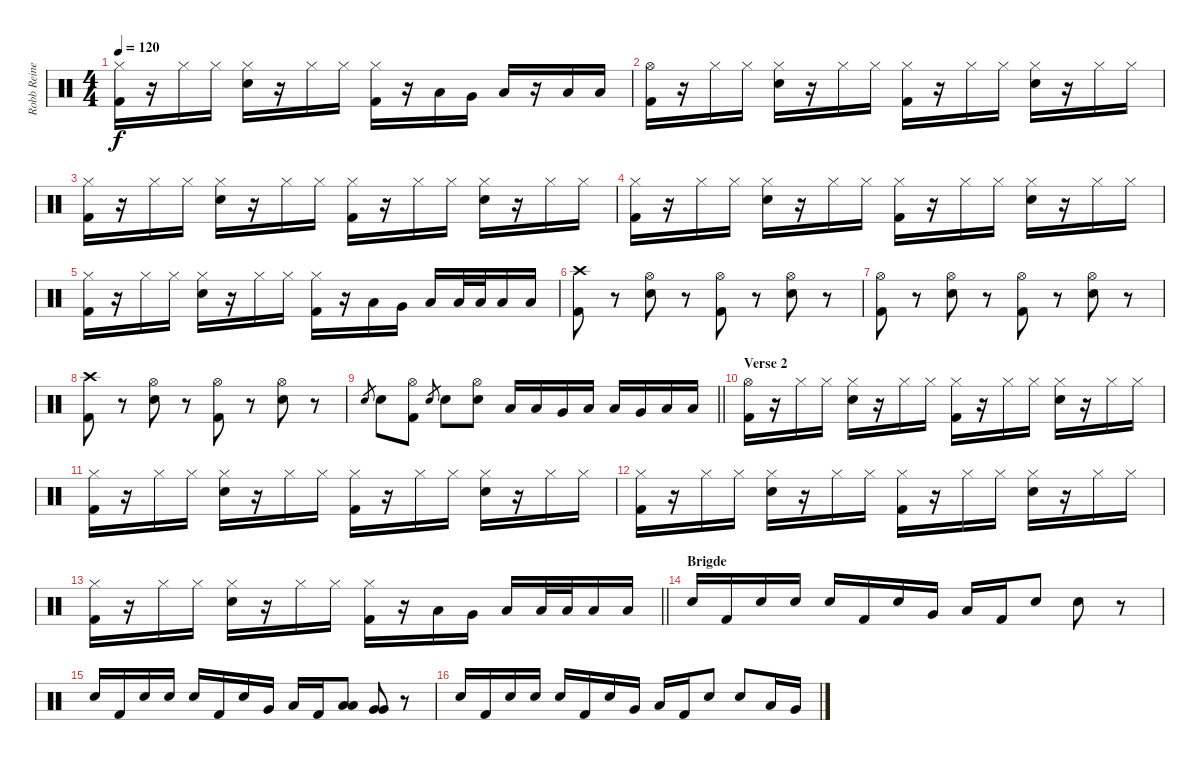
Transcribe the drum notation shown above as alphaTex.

\track ("Robb Reiner" "Robb Reine") {instrument percussion}
\staff {score}
\articulation defaults
\ts (4 4)
\tempo 120
\clef neutral
\ks c
("Hi-Hat (closed)" "Kick (hit) 2").16{dy f} r.16 "Hi-Hat (closed)".16 "Hi-Hat (closed)".16 ("Hi-Hat (closed)" "Snare (hit) 2").16 r.16 "Hi-Hat (closed)".16 "Hi-Hat (closed)".16 ("Hi-Hat (closed)" "Kick (hit) 2").16 r.16 "Low Tom (hit)".16 "Very Low Tom (hit)".16 "Low Floor Tom (hit)".16 r.16 "Low Tom (hit)".16 "Low Tom (hit)".16 |
("Hi-Hat (open)" "Kick (hit) 2").16 r.16 "Hi-Hat (closed)".16 "Hi-Hat (closed)".16 ("Hi-Hat (closed)" "Snare (hit) 2").16 r.16 "Hi-Hat (closed)".16 "Hi-Hat (closed)".16 ("Hi-Hat (closed)" "Kick (hit) 2").16 r.16 "Hi-Hat (closed)".16 "Hi-Hat (closed)".16 ("Hi-Hat (closed)" "Snare (hit) 2").16 r.16 "Hi-Hat (closed)".16 "Hi-Hat (closed)".16 |
("Hi-Hat (closed)" "Kick (hit) 2").16 r.16 "Hi-Hat (closed)".16 "Hi-Hat (closed)".16 ("Hi-Hat (closed)" "Snare (hit) 2").16 r.16 "Hi-Hat (closed)".16 "Hi-Hat (closed)".16 ("Hi-Hat (closed)" "Kick (hit) 2").16 r.16 "Hi-Hat (closed)".16 "Hi-Hat (closed)".16 ("Hi-Hat (closed)" "Snare (hit) 2").16 r.16 "Hi-Hat (closed)".16 "Hi-Hat (closed)".16 |
("Hi-Hat (closed)" "Kick (hit) 2").16 r.16 "Hi-Hat (closed)".16 "Hi-Hat (closed)".16 ("Hi-Hat (closed)" "Snare (hit) 2").16 r.16 "Hi-Hat (closed)".16 "Hi-Hat (closed)".16 ("Hi-Hat (closed)" "Kick (hit) 2").16 r.16 "Hi-Hat (closed)".16 "Hi-Hat (closed)".16 ("Hi-Hat (closed)" "Snare (hit) 2").16 r.16 "Hi-Hat (closed)".16 "Hi-Hat (closed)".16 |
("Hi-Hat (closed)" "Kick (hit) 2").16 r.16 "Hi-Hat (closed)".16 "Hi-Hat (closed)".16 ("Hi-Hat (closed)" "Snare (hit) 2").16 r.16 "Hi-Hat (closed)".16 "Hi-Hat (closed)".16 ("Hi-Hat (closed)" "Kick (hit) 2").16 r.16 "Low Tom (hit)".16 "Very Low Tom (hit)".16 "Low Floor Tom (hit)".16 "Low Tom (hit)".32 "Low Tom (hit)".32 "Low Tom (hit)".16 "Low Floor Tom (hit)".16 |
("Kick (hit) 2" "Crash high (hit)").8 r.8 ("Snare (hit) 2" "Hi-Hat (open)").8 r.8 ("Kick (hit) 2" "Hi-Hat (open)").8 r.8 ("Snare (hit) 2" "Hi-Hat (open)").8 r.8 |
("Kick (hit) 2" "Hi-Hat (open)").8 r.8 ("Snare (hit) 2" "Hi-Hat (open)").8 r.8 ("Kick (hit) 2" "Hi-Hat (open)").8 r.8 ("Snare (hit) 2" "Hi-Hat (open)").8 r.8 |
("Kick (hit) 2" "Crash high (hit)").8 r.8 ("Snare (hit) 2" "Hi-Hat (open)").8 r.8 ("Kick (hit) 2" "Hi-Hat (open)").8 r.8 ("Snare (hit) 2" "Hi-Hat (open)").8 r.8 |
\barLineRight lightlight "Snare (hit) 2".8{gr} "Snare (hit) 2".8
("Kick (hit) 2" "Hi-Hat (open)").8 "Snare (hit) 2".8{gr} "Snare (hit) 2".8 ("Snare (hit) 2" "Hi-Hat (open)").8 "Low Tom (hit)".16 "Low Tom (hit)".16 "Very Low Tom (hit)".16 "Low Floor Tom (hit)".16 "Low Tom (hit)".16 "Very Low Tom (hit)".16 "Low Floor Tom (hit)".16 "Low Tom (hit)".16 |
\section ("" "Verse 2")
("Hi-Hat (open)" "Kick (hit) 2").16 r.16 "Hi-Hat (closed)".16 "Hi-Hat (closed)".16 ("Hi-Hat (closed)" "Snare (hit) 2").16 r.16 "Hi-Hat (closed)".16 "Hi-Hat (closed)".16 ("Hi-Hat (closed)" "Kick (hit) 2").16 r.16 "Hi-Hat (closed)".16 "Hi-Hat (closed)".16 ("Hi-Hat (closed)" "Snare (hit) 2").16 r.16 "Hi-Hat (closed)".16 "Hi-Hat (closed)".16 |
("Hi-Hat (closed)" "Kick (hit) 2").16 r.16 "Hi-Hat (closed)".16 "Hi-Hat (closed)".16 ("Hi-Hat (closed)" "Snare (hit) 2").16 r.16 "Hi-Hat (closed)".16 "Hi-Hat (closed)".16 ("Hi-Hat (closed)" "Kick (hit) 2").16 r.16 "Hi-Hat (closed)".16 "Hi-Hat (closed)".16 ("Hi-Hat (closed)" "Snare (hit) 2").16 r.16 "Hi-Hat (closed)".16 "Hi-Hat (closed)".16 |
("Hi-Hat (closed)" "Kick (hit) 2").16 r.16 "Hi-Hat (closed)".16 "Hi-Hat (closed)".16 ("Hi-Hat (closed)" "Snare (hit) 2").16 r.16 "Hi-Hat (closed)".16 "Hi-Hat (closed)".16 ("Hi-Hat (closed)" "Kick (hit) 2").16 r.16 "Hi-Hat (closed)".16 "Hi-Hat (closed)".16 ("Hi-Hat (closed)" "Snare (hit) 2").16 r.16 "Hi-Hat (closed)".16 "Hi-Hat (closed)".16 |
\barLineRight lightlight
("Hi-Hat (closed)" "Kick (hit) 2").16 r.16 "Hi-Hat (closed)".16 "Hi-Hat (closed)".16 ("Hi-Hat (closed)" "Snare (hit) 2").16 r.16 "Hi-Hat (closed)".16 "Hi-Hat (closed)".16 ("Hi-Hat (closed)" "Kick (hit) 2").16 r.16 "Low Tom (hit)".16 "Very Low Tom (hit)".16 "Low Floor Tom (hit)".16 "Low Tom (hit)".32 "Low Tom (hit)".32 "Low Tom (hit)".16 "Low Floor Tom (hit)".16 |
\section ("" "Brigde")
"Snare (hit) 2".16 "Kick (hit) 2".16 "Snare (hit) 2".16 "Snare (hit) 2".16 "Snare (hit) 2".16 "Kick (hit) 2".16 "Snare (hit) 2".16 "Very Low Tom (hit)".16 "Low Floor Tom (hit)".16 "Kick (hit) 2".16 "Snare (hit) 2".8 "Snare (hit) 2".8 r.8 |
"Snare (hit) 2".16 "Kick (hit) 2".16 "Snare (hit) 2".16 "Snare (hit) 2".16 "Snare (hit) 2".16 "Kick (hit) 2".16 "Snare (hit) 2".16 "Very Low Tom (hit)".16 "Low Floor Tom (hit)".16 "Kick (hit) 2".16 ("Low Tom (hit)" "Low Tom (hit)").8 ("Very Low Tom (hit)" "Very Low Tom (hit)").8 r.8 |
"Snare (hit) 2".16 "Kick (hit) 2".16 "Snare (hit) 2".16 "Snare (hit) 2".16 "Snare (hit) 2".16 "Kick (hit) 2".16 "Snare (hit) 2".16 "Very Low Tom (hit)".16 "Low Floor Tom (hit)".16 "Kick (hit) 2".16 "Snare (hit) 2".8 "Snare (hit) 2".8 "Low Tom (hit)".16 "Very Low Tom (hit)".16
